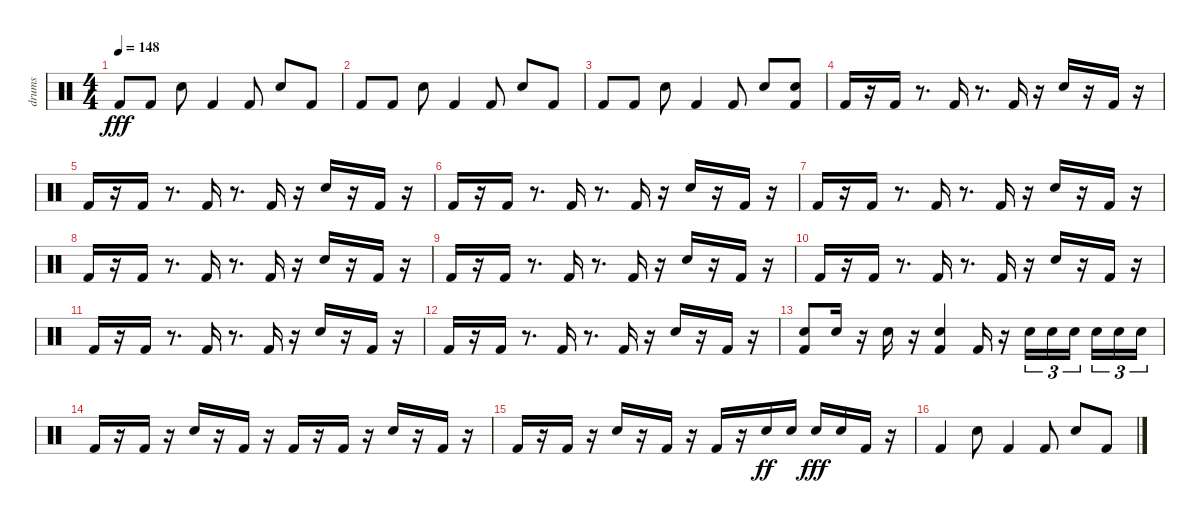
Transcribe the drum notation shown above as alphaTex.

\track ("drums" "drums") {instrument percussion}
\staff {score}
\articulation defaults
\ts (4 4)
\tempo 148
\clef neutral
\ks c "Kick (hit) 2".8{dy fff} "Kick (hit) 2".8 "Electric Snare (hit)".8 "Kick (hit) 2".4 "Kick (hit) 2".8 "Electric Snare (hit)".8 "Kick (hit) 2".8
|
"Kick (hit) 2".8 "Kick (hit) 2".8 "Electric Snare (hit)".8 "Kick (hit) 2".4 "Kick (hit) 2".8 "Electric Snare (hit)".8 "Kick (hit) 2".8 |
"Kick (hit) 2".8 "Kick (hit) 2".8 "Electric Snare (hit)".8 "Kick (hit) 2".4 "Kick (hit) 2".8 "Electric Snare (hit)".8 ("Kick (hit) 2" "Electric Snare (hit)").8 |
"Kick (hit) 2".16 r.16 "Kick (hit) 2".16 r.8{d} "Kick (hit) 2".16 r.8{d} "Kick (hit) 2".16 r.16 "Electric Snare (hit)".16 r.16 "Kick (hit) 2".16 r.16 |
"Kick (hit) 2".16 r.16 "Kick (hit) 2".16 r.8{d} "Kick (hit) 2".16 r.8{d} "Kick (hit) 2".16 r.16 "Electric Snare (hit)".16 r.16 "Kick (hit) 2".16 r.16 |
"Kick (hit) 2".16 r.16 "Kick (hit) 2".16 r.8{d} "Kick (hit) 2".16 r.8{d} "Kick (hit) 2".16 r.16 "Electric Snare (hit)".16 r.16 "Kick (hit) 2".16 r.16 |
"Kick (hit) 2".16 r.16 "Kick (hit) 2".16 r.8{d} "Kick (hit) 2".16 r.8{d} "Kick (hit) 2".16 r.16 "Electric Snare (hit)".16 r.16 "Kick (hit) 2".16 r.16 |
"Kick (hit) 2".16 r.16 "Kick (hit) 2".16 r.8{d} "Kick (hit) 2".16 r.8{d} "Kick (hit) 2".16 r.16 "Electric Snare (hit)".16 r.16 "Kick (hit) 2".16 r.16 |
"Kick (hit) 2".16 r.16 "Kick (hit) 2".16 r.8{d} "Kick (hit) 2".16 r.8{d} "Kick (hit) 2".16 r.16 "Electric Snare (hit)".16 r.16 "Kick (hit) 2".16 r.16 |
"Kick (hit) 2".16 r.16 "Kick (hit) 2".16 r.8{d} "Kick (hit) 2".16 r.8{d} "Kick (hit) 2".16 r.16 "Electric Snare (hit)".16 r.16 "Kick (hit) 2".16 r.16 |
"Kick (hit) 2".16 r.16 "Kick (hit) 2".16 r.8{d} "Kick (hit) 2".16 r.8{d} "Kick (hit) 2".16 r.16 "Electric Snare (hit)".16 r.16 "Kick (hit) 2".16 r.16 |
"Kick (hit) 2".16 r.16 "Kick (hit) 2".16 r.8{d} "Kick (hit) 2".16 r.8{d} "Kick (hit) 2".16 r.16 "Electric Snare (hit)".16 r.16 "Kick (hit) 2".16 r.16 |
("Electric Snare (hit)" "Kick (hit) 2").8 "Electric Snare (hit)".16 r.16 "Electric Snare (hit)".16 r.16 ("Electric Snare (hit)" "Kick (hit) 2").4 "Kick (hit) 2".16 r.16 "Electric Snare (hit)".16{tu (3 2)} "Electric Snare (hit)".16{tu (3 2)} "Electric Snare (hit)".16{tu (3 2) beam splitsecondary} "Electric Snare (hit)".16{tu (3 2)} "Electric Snare (hit)".16{tu (3 2)} "Electric Snare (hit)".16{tu (3 2)} |
"Kick (hit) 2".16 r.16 "Kick (hit) 2".16 r.16 "Electric Snare (hit)".16 r.16 "Kick (hit) 2".16 r.16 "Kick (hit) 2".16 r.16 "Kick (hit) 2".16 r.16 "Electric Snare (hit)".16 r.16 "Kick (hit) 2".16 r.16 |
"Kick (hit) 2".16 r.16 "Kick (hit) 2".16 r.16 "Electric Snare (hit)".16 r.16 "Kick (hit) 2".16 r.16 "Kick (hit) 2".16 r.16 "Electric Snare (hit)".16{dy ff} "Electric Snare (hit)".16 "Electric Snare (hit)".16{dy fff} "Electric Snare (hit)".16 "Kick (hit) 2".16 r.16 |
"Kick (hit) 2".4 "Electric Snare (hit)".8 "Kick (hit) 2".4 "Kick (hit) 2".8 "Electric Snare (hit)".8 "Kick (hit) 2".8
